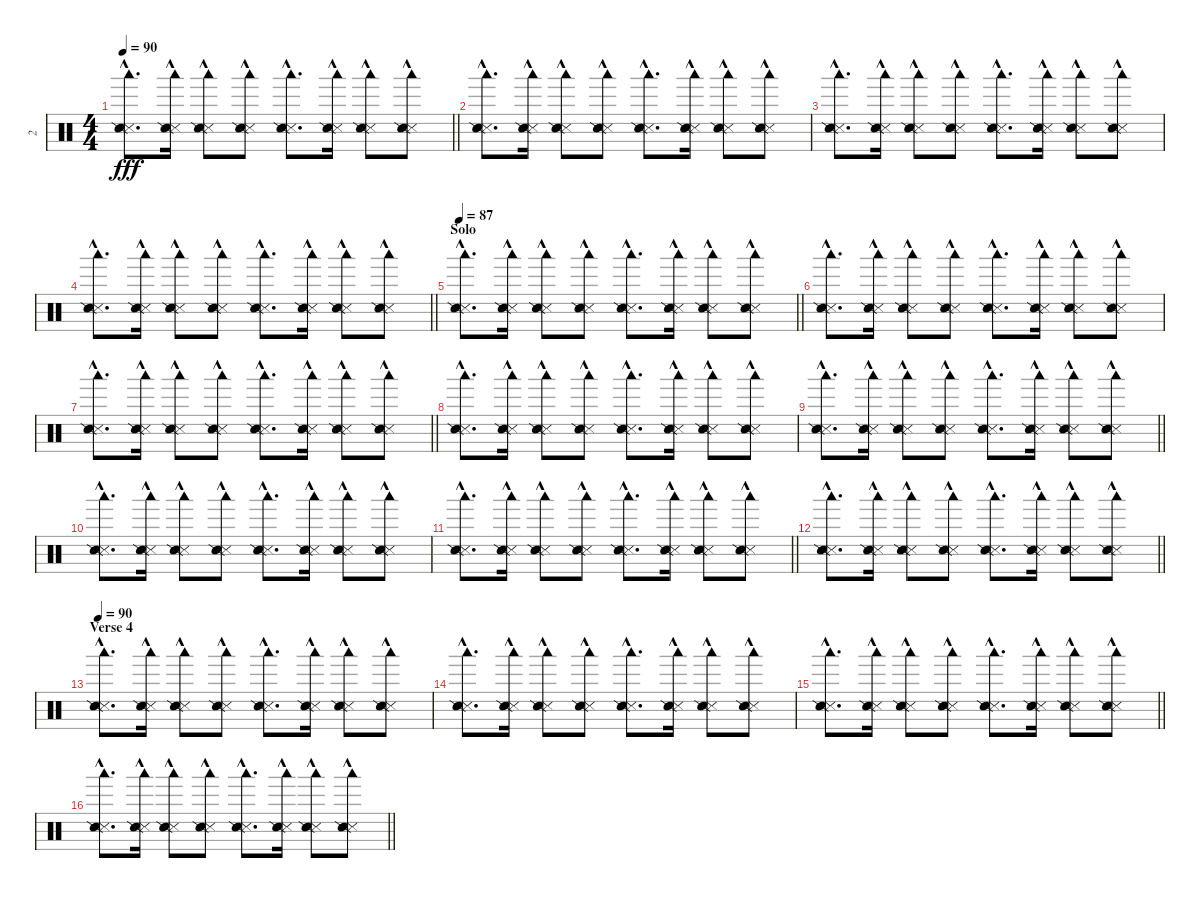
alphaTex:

\track ("2" "2") {instrument percussion}
\staff {score}
\articulation defaults
\ts (4 4)
\tempo 90
\clef neutral
\barLineRight lightlight
\ks c
("Snare (side stick) 3"{hac} "Snare (side stick) 2"{hac} "Woodblock low (hit)").8{d dy fff} ("Snare (side stick) 3"{hac} "Snare (side stick) 2"{hac} "Woodblock low (hit)").16 ("Snare (side stick) 3"{hac} "Snare (side stick) 2"{hac} "Woodblock low (hit)").8 ("Snare (side stick) 3"{hac} "Snare (side stick) 2"{hac} "Woodblock low (hit)").8 ("Snare (side stick) 3"{hac} "Snare (side stick) 2"{hac} "Woodblock low (hit)").8{d} ("Snare (side stick) 3"{hac} "Snare (side stick) 2"{hac} "Woodblock low (hit)").16 ("Snare (side stick) 3"{hac} "Snare (side stick) 2"{hac} "Woodblock low (hit)").8 ("Snare (side stick) 3"{hac} "Snare (side stick) 2"{hac} "Woodblock low (hit)").8 |
("Snare (side stick) 3"{hac} "Snare (side stick) 2"{hac} "Woodblock low (hit)").8{d} ("Snare (side stick) 3"{hac} "Snare (side stick) 2"{hac} "Woodblock low (hit)").16 ("Snare (side stick) 3"{hac} "Snare (side stick) 2"{hac} "Woodblock low (hit)").8 ("Snare (side stick) 3"{hac} "Snare (side stick) 2"{hac} "Woodblock low (hit)").8 ("Snare (side stick) 3"{hac} "Snare (side stick) 2"{hac} "Woodblock low (hit)").8{d} ("Snare (side stick) 3"{hac} "Snare (side stick) 2"{hac} "Woodblock low (hit)").16 ("Snare (side stick) 3"{hac} "Snare (side stick) 2"{hac} "Woodblock low (hit)").8 ("Snare (side stick) 3"{hac} "Snare (side stick) 2"{hac} "Woodblock low (hit)").8 |
("Snare (side stick) 3"{hac} "Snare (side stick) 2"{hac} "Woodblock low (hit)").8{d} ("Snare (side stick) 3"{hac} "Snare (side stick) 2"{hac} "Woodblock low (hit)").16 ("Snare (side stick) 3"{hac} "Snare (side stick) 2"{hac} "Woodblock low (hit)").8 ("Snare (side stick) 3"{hac} "Snare (side stick) 2"{hac} "Woodblock low (hit)").8 ("Snare (side stick) 3"{hac} "Snare (side stick) 2"{hac} "Woodblock low (hit)").8{d} ("Snare (side stick) 3"{hac} "Snare (side stick) 2"{hac} "Woodblock low (hit)").16 ("Snare (side stick) 3"{hac} "Snare (side stick) 2"{hac} "Woodblock low (hit)").8 ("Snare (side stick) 3"{hac} "Snare (side stick) 2"{hac} "Woodblock low (hit)").8 |
\barLineRight lightlight
("Snare (side stick) 3"{hac} "Snare (side stick) 2"{hac} "Woodblock low (hit)").8{d} ("Snare (side stick) 3"{hac} "Snare (side stick) 2"{hac} "Woodblock low (hit)").16 ("Snare (side stick) 3"{hac} "Snare (side stick) 2"{hac} "Woodblock low (hit)").8 ("Snare (side stick) 3"{hac} "Snare (side stick) 2"{hac} "Woodblock low (hit)").8 ("Snare (side stick) 3"{hac} "Snare (side stick) 2"{hac} "Woodblock low (hit)").8{d} ("Snare (side stick) 3"{hac} "Snare (side stick) 2"{hac} "Woodblock low (hit)").16 ("Snare (side stick) 3"{hac} "Snare (side stick) 2"{hac} "Woodblock low (hit)").8 ("Snare (side stick) 3"{hac} "Snare (side stick) 2"{hac} "Woodblock low (hit)").8 |
\section ("" "Solo")
\tempo 87
\barLineRight lightlight
("Snare (side stick) 3"{hac} "Snare (side stick) 2"{hac} "Woodblock low (hit)").8{d} ("Snare (side stick) 3"{hac} "Snare (side stick) 2"{hac} "Woodblock low (hit)").16 ("Snare (side stick) 3"{hac} "Snare (side stick) 2"{hac} "Woodblock low (hit)").8 ("Snare (side stick) 3"{hac} "Snare (side stick) 2"{hac} "Woodblock low (hit)").8 ("Snare (side stick) 3"{hac} "Snare (side stick) 2"{hac} "Woodblock low (hit)").8{d} ("Snare (side stick) 3"{hac} "Snare (side stick) 2"{hac} "Woodblock low (hit)").16 ("Snare (side stick) 3"{hac} "Snare (side stick) 2"{hac} "Woodblock low (hit)").8 ("Snare (side stick) 3"{hac} "Snare (side stick) 2"{hac} "Woodblock low (hit)").8 |
("Snare (side stick) 3"{hac} "Snare (side stick) 2"{hac} "Woodblock low (hit)").8{d} ("Snare (side stick) 3"{hac} "Snare (side stick) 2"{hac} "Woodblock low (hit)").16 ("Snare (side stick) 3"{hac} "Snare (side stick) 2"{hac} "Woodblock low (hit)").8 ("Snare (side stick) 3"{hac} "Snare (side stick) 2"{hac} "Woodblock low (hit)").8 ("Snare (side stick) 3"{hac} "Snare (side stick) 2"{hac} "Woodblock low (hit)").8{d} ("Snare (side stick) 3"{hac} "Snare (side stick) 2"{hac} "Woodblock low (hit)").16 ("Snare (side stick) 3"{hac} "Snare (side stick) 2"{hac} "Woodblock low (hit)").8 ("Snare (side stick) 3"{hac} "Snare (side stick) 2"{hac} "Woodblock low (hit)").8 |
\barLineRight lightlight
("Snare (side stick) 3"{hac} "Snare (side stick) 2"{hac} "Woodblock low (hit)").8{d} ("Snare (side stick) 3"{hac} "Snare (side stick) 2"{hac} "Woodblock low (hit)").16 ("Snare (side stick) 3"{hac} "Snare (side stick) 2"{hac} "Woodblock low (hit)").8 ("Snare (side stick) 3"{hac} "Snare (side stick) 2"{hac} "Woodblock low (hit)").8 ("Snare (side stick) 3"{hac} "Snare (side stick) 2"{hac} "Woodblock low (hit)").8{d} ("Snare (side stick) 3"{hac} "Snare (side stick) 2"{hac} "Woodblock low (hit)").16 ("Snare (side stick) 3"{hac} "Snare (side stick) 2"{hac} "Woodblock low (hit)").8 ("Snare (side stick) 3"{hac} "Snare (side stick) 2"{hac} "Woodblock low (hit)").8 |
("Snare (side stick) 3"{hac} "Snare (side stick) 2"{hac} "Woodblock low (hit)").8{d} ("Snare (side stick) 3"{hac} "Snare (side stick) 2"{hac} "Woodblock low (hit)").16 ("Snare (side stick) 3"{hac} "Snare (side stick) 2"{hac} "Woodblock low (hit)").8 ("Snare (side stick) 3"{hac} "Snare (side stick) 2"{hac} "Woodblock low (hit)").8 ("Snare (side stick) 3"{hac} "Snare (side stick) 2"{hac} "Woodblock low (hit)").8{d} ("Snare (side stick) 3"{hac} "Snare (side stick) 2"{hac} "Woodblock low (hit)").16 ("Snare (side stick) 3"{hac} "Snare (side stick) 2"{hac} "Woodblock low (hit)").8 ("Snare (side stick) 3"{hac} "Snare (side stick) 2"{hac} "Woodblock low (hit)").8 |
\barLineRight lightlight
("Snare (side stick) 3"{hac} "Snare (side stick) 2"{hac} "Woodblock low (hit)").8{d} ("Snare (side stick) 3"{hac} "Snare (side stick) 2"{hac} "Woodblock low (hit)").16 ("Snare (side stick) 3"{hac} "Snare (side stick) 2"{hac} "Woodblock low (hit)").8 ("Snare (side stick) 3"{hac} "Snare (side stick) 2"{hac} "Woodblock low (hit)").8 ("Snare (side stick) 3"{hac} "Snare (side stick) 2"{hac} "Woodblock low (hit)").8{d} ("Snare (side stick) 3"{hac} "Snare (side stick) 2"{hac} "Woodblock low (hit)").16 ("Snare (side stick) 3"{hac} "Snare (side stick) 2"{hac} "Woodblock low (hit)").8 ("Snare (side stick) 3"{hac} "Snare (side stick) 2"{hac} "Woodblock low (hit)").8 |
("Snare (side stick) 3"{hac} "Snare (side stick) 2"{hac} "Woodblock low (hit)").8{d} ("Snare (side stick) 3"{hac} "Snare (side stick) 2"{hac} "Woodblock low (hit)").16 ("Snare (side stick) 3"{hac} "Snare (side stick) 2"{hac} "Woodblock low (hit)").8 ("Snare (side stick) 3"{hac} "Snare (side stick) 2"{hac} "Woodblock low (hit)").8 ("Snare (side stick) 3"{hac} "Snare (side stick) 2"{hac} "Woodblock low (hit)").8{d} ("Snare (side stick) 3"{hac} "Snare (side stick) 2"{hac} "Woodblock low (hit)").16 ("Snare (side stick) 3"{hac} "Snare (side stick) 2"{hac} "Woodblock low (hit)").8 ("Snare (side stick) 3"{hac} "Snare (side stick) 2"{hac} "Woodblock low (hit)").8 |
\barLineRight lightlight
("Snare (side stick) 3"{hac} "Snare (side stick) 2"{hac} "Woodblock low (hit)").8{d} ("Snare (side stick) 3"{hac} "Snare (side stick) 2"{hac} "Woodblock low (hit)").16 ("Snare (side stick) 3"{hac} "Snare (side stick) 2"{hac} "Woodblock low (hit)").8 ("Snare (side stick) 3"{hac} "Snare (side stick) 2"{hac} "Woodblock low (hit)").8 ("Snare (side stick) 3"{hac} "Snare (side stick) 2"{hac} "Woodblock low (hit)").8{d} ("Snare (side stick) 3"{hac} "Snare (side stick) 2"{hac} "Woodblock low (hit)").16 ("Snare (side stick) 3"{hac} "Snare (side stick) 2"{hac} "Woodblock low (hit)").8 ("Snare (side stick) 3"{hac} "Snare (side stick) 2"{hac} "Woodblock low (hit)").8 |
\barLineRight lightlight
("Snare (side stick) 3"{hac} "Snare (side stick) 2"{hac} "Woodblock low (hit)").8{d} ("Snare (side stick) 3"{hac} "Snare (side stick) 2"{hac} "Woodblock low (hit)").16 ("Snare (side stick) 3"{hac} "Snare (side stick) 2"{hac} "Woodblock low (hit)").8 ("Snare (side stick) 3"{hac} "Snare (side stick) 2"{hac} "Woodblock low (hit)").8 ("Snare (side stick) 3"{hac} "Snare (side stick) 2"{hac} "Woodblock low (hit)").8{d} ("Snare (side stick) 3"{hac} "Snare (side stick) 2"{hac} "Woodblock low (hit)").16 ("Snare (side stick) 3"{hac} "Snare (side stick) 2"{hac} "Woodblock low (hit)").8 ("Snare (side stick) 3"{hac} "Snare (side stick) 2"{hac} "Woodblock low (hit)").8 |
\section ("" "Verse 4")
\tempo 90
("Snare (side stick) 3"{hac} "Snare (side stick) 2"{hac} "Woodblock low (hit)").8{d} ("Snare (side stick) 3"{hac} "Snare (side stick) 2"{hac} "Woodblock low (hit)").16 ("Snare (side stick) 3"{hac} "Snare (side stick) 2"{hac} "Woodblock low (hit)").8 ("Snare (side stick) 3"{hac} "Snare (side stick) 2"{hac} "Woodblock low (hit)").8 ("Snare (side stick) 3"{hac} "Snare (side stick) 2"{hac} "Woodblock low (hit)").8{d} ("Snare (side stick) 3"{hac} "Snare (side stick) 2"{hac} "Woodblock low (hit)").16 ("Snare (side stick) 3"{hac} "Snare (side stick) 2"{hac} "Woodblock low (hit)").8 ("Snare (side stick) 3"{hac} "Snare (side stick) 2"{hac} "Woodblock low (hit)").8 |
("Snare (side stick) 3"{hac} "Snare (side stick) 2"{hac} "Woodblock low (hit)").8{d} ("Snare (side stick) 3"{hac} "Snare (side stick) 2"{hac} "Woodblock low (hit)").16 ("Snare (side stick) 3"{hac} "Snare (side stick) 2"{hac} "Woodblock low (hit)").8 ("Snare (side stick) 3"{hac} "Snare (side stick) 2"{hac} "Woodblock low (hit)").8 ("Snare (side stick) 3"{hac} "Snare (side stick) 2"{hac} "Woodblock low (hit)").8{d} ("Snare (side stick) 3"{hac} "Snare (side stick) 2"{hac} "Woodblock low (hit)").16 ("Snare (side stick) 3"{hac} "Snare (side stick) 2"{hac} "Woodblock low (hit)").8 ("Snare (side stick) 3"{hac} "Snare (side stick) 2"{hac} "Woodblock low (hit)").8 |
\barLineRight lightlight
("Snare (side stick) 3"{hac} "Snare (side stick) 2"{hac} "Woodblock low (hit)").8{d} ("Snare (side stick) 3"{hac} "Snare (side stick) 2"{hac} "Woodblock low (hit)").16 ("Snare (side stick) 3"{hac} "Snare (side stick) 2"{hac} "Woodblock low (hit)").8 ("Snare (side stick) 3"{hac} "Snare (side stick) 2"{hac} "Woodblock low (hit)").8 ("Snare (side stick) 3"{hac} "Snare (side stick) 2"{hac} "Woodblock low (hit)").8{d} ("Snare (side stick) 3"{hac} "Snare (side stick) 2"{hac} "Woodblock low (hit)").16 ("Snare (side stick) 3"{hac} "Snare (side stick) 2"{hac} "Woodblock low (hit)").8 ("Snare (side stick) 3"{hac} "Snare (side stick) 2"{hac} "Woodblock low (hit)").8 |
\barLineRight lightlight
("Snare (side stick) 3"{hac} "Snare (side stick) 2"{hac} "Woodblock low (hit)").8{d} ("Snare (side stick) 3"{hac} "Snare (side stick) 2"{hac} "Woodblock low (hit)").16 ("Snare (side stick) 3"{hac} "Snare (side stick) 2"{hac} "Woodblock low (hit)").8 ("Snare (side stick) 3"{hac} "Snare (side stick) 2"{hac} "Woodblock low (hit)").8 ("Snare (side stick) 3"{hac} "Snare (side stick) 2"{hac} "Woodblock low (hit)").8{d} ("Snare (side stick) 3"{hac} "Snare (side stick) 2"{hac} "Woodblock low (hit)").16 ("Snare (side stick) 3"{hac} "Snare (side stick) 2"{hac} "Woodblock low (hit)").8 ("Snare (side stick) 3"{hac} "Snare (side stick) 2"{hac} "Woodblock low (hit)").8
